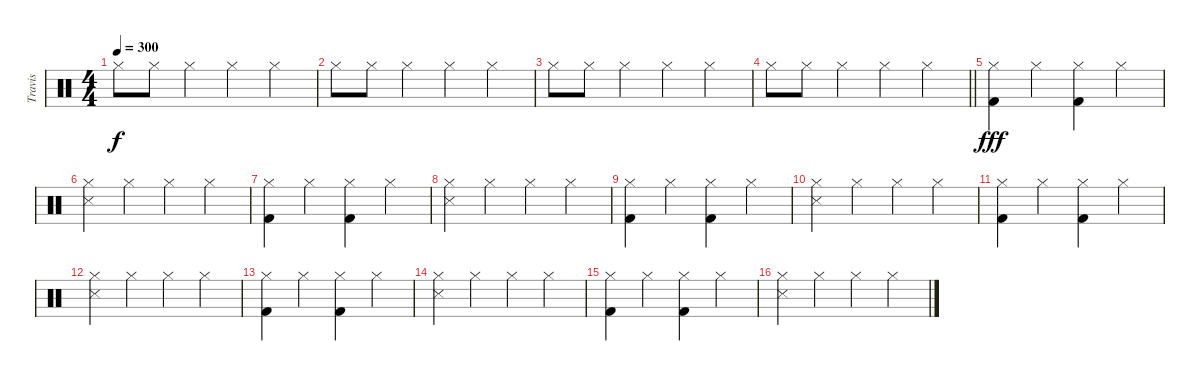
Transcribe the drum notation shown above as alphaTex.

\track ("Travis" "Travis") {instrument percussion}
\staff {score}
\articulation defaults
\ts (4 4)
\tempo 300
\clef neutral
\ks c "Hi-Hat (closed)".8{dy f} "Hi-Hat (closed)".8 "Hi-Hat (closed)".4 "Hi-Hat (closed)".4 "Hi-Hat (closed)".4
|
"Hi-Hat (closed)".8 "Hi-Hat (closed)".8 "Hi-Hat (closed)".4 "Hi-Hat (closed)".4 "Hi-Hat (closed)".4 |
"Hi-Hat (closed)".8 "Hi-Hat (closed)".8 "Hi-Hat (closed)".4 "Hi-Hat (closed)".4 "Hi-Hat (closed)".4 |
\barLineRight lightlight "Hi-Hat (closed)".8 "Hi-Hat (closed)".8 "Hi-Hat (closed)".4 "Hi-Hat (closed)".4 "Hi-Hat (closed)".4
|
("Hi-Hat (closed)" "Kick (hit) 2").4{dy fff} "Hi-Hat (closed)".4 ("Hi-Hat (closed)" "Kick (hit) 2").4 "Hi-Hat (closed)".4 |
("Hi-Hat (closed)" "Snare (side stick) 3").4 "Hi-Hat (closed)".4 "Hi-Hat (closed)".4 "Hi-Hat (closed)".4 |
("Hi-Hat (closed)" "Kick (hit) 2").4 "Hi-Hat (closed)".4 ("Hi-Hat (closed)" "Kick (hit) 2").4 "Hi-Hat (closed)".4 |
("Hi-Hat (closed)" "Snare (side stick) 3").4 "Hi-Hat (closed)".4 "Hi-Hat (closed)".4 "Hi-Hat (closed)".4 |
("Hi-Hat (closed)" "Kick (hit) 2").4 "Hi-Hat (closed)".4 ("Hi-Hat (closed)" "Kick (hit) 2").4 "Hi-Hat (closed)".4 |
("Hi-Hat (closed)" "Snare (side stick) 3").4 "Hi-Hat (closed)".4 "Hi-Hat (closed)".4 "Hi-Hat (closed)".4 |
("Hi-Hat (closed)" "Kick (hit) 2").4 "Hi-Hat (closed)".4 ("Hi-Hat (closed)" "Kick (hit) 2").4 "Hi-Hat (closed)".4 |
("Hi-Hat (closed)" "Snare (side stick) 3").4 "Hi-Hat (closed)".4 "Hi-Hat (closed)".4 "Hi-Hat (closed)".4 |
("Hi-Hat (closed)" "Kick (hit) 2").4 "Hi-Hat (closed)".4 ("Hi-Hat (closed)" "Kick (hit) 2").4 "Hi-Hat (closed)".4 |
("Hi-Hat (closed)" "Snare (side stick) 3").4 "Hi-Hat (closed)".4 "Hi-Hat (closed)".4 "Hi-Hat (closed)".4 |
("Hi-Hat (closed)" "Kick (hit) 2").4 "Hi-Hat (closed)".4 ("Hi-Hat (closed)" "Kick (hit) 2").4 "Hi-Hat (closed)".4 |
("Hi-Hat (closed)" "Snare (side stick) 3").4 "Hi-Hat (closed)".4 "Hi-Hat (closed)".4 "Hi-Hat (closed)".4
